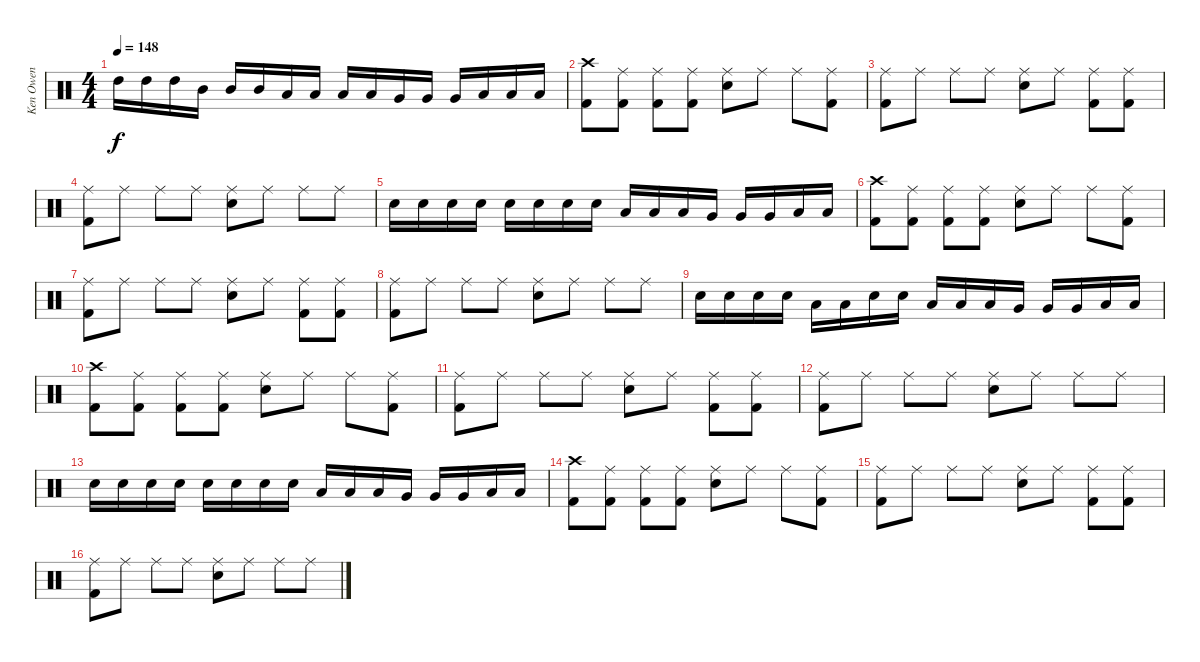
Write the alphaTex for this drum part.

\track ("Ken Owen" "Ken Owen") {instrument percussion}
\staff {score}
\articulation defaults
\ts (4 4)
\tempo 148
\clef neutral
\ks c "High Tom (hit)".16{dy f} "High Tom (hit)".16 "High Tom (hit)".16 "Mid Tom (hit)".16 "Mid Tom (hit)".16 "Mid Tom (hit)".16 "Low Tom (hit)".16 "Low Tom (hit)".16 "Low Tom (hit)".16 "Low Tom (hit)".16 "Very Low Tom (hit)".16 "Very Low Tom (hit)".16 "Very Low Tom (hit)".16 "Low Floor Tom (hit)".16 "Low Floor Tom (hit)".16 "Low Floor Tom (hit)".16
|
("Crash high (hit)" "Kick (hit) 2").8 ("Ride (middle)" "Kick (hit) 2").8 ("Ride (middle)" "Kick (hit) 2").8 ("Ride (middle)" "Kick (hit) 2").8 ("Ride (middle)" "Snare (hit) 2").8 "Ride (middle)".8 "Ride (middle)".8 ("Ride (middle)" "Kick (hit) 2").8 |
("Ride (middle)" "Kick (hit) 2").8 "Ride (middle)".8 "Ride (middle)".8 "Ride (middle)".8 ("Ride (middle)" "Snare (hit) 2").8 "Ride (middle)".8 ("Ride (middle)" "Kick (hit) 2").8 ("Ride (middle)" "Kick (hit) 2").8 |
("Ride (middle)" "Kick (hit) 2").8 "Ride (middle)".8 "Ride (middle)".8 "Ride (middle)".8 ("Ride (middle)" "Snare (hit) 2").8 "Ride (middle)".8 "Ride (middle)".8 "Ride (middle)".8 |
"Snare (hit) 2".16 "Snare (hit) 2".16 "Snare (hit) 2".16 "Snare (hit) 2".16 "Snare (hit) 2".16 "Snare (hit) 2".16 "Snare (hit) 2".16 "Snare (hit) 2".16 "Low Tom (hit)".16 "Low Tom (hit)".16 "Low Tom (hit)".16 "Very Low Tom (hit)".16 "Very Low Tom (hit)".16 "Very Low Tom (hit)".16 "Low Floor Tom (hit)".16 "Low Floor Tom (hit)".16 |
("Crash high (hit)" "Kick (hit) 2").8 ("Ride (middle)" "Kick (hit) 2").8 ("Ride (middle)" "Kick (hit) 2").8 ("Ride (middle)" "Kick (hit) 2").8 ("Ride (middle)" "Snare (hit) 2").8 "Ride (middle)".8 "Ride (middle)".8 ("Ride (middle)" "Kick (hit) 2").8 |
("Ride (middle)" "Kick (hit) 2").8 "Ride (middle)".8 "Ride (middle)".8 "Ride (middle)".8 ("Ride (middle)" "Snare (hit) 2").8 "Ride (middle)".8 ("Ride (middle)" "Kick (hit) 2").8 ("Ride (middle)" "Kick (hit) 2").8 |
("Ride (middle)" "Kick (hit) 2").8 "Ride (middle)".8 "Ride (middle)".8 "Ride (middle)".8 ("Ride (middle)" "Snare (hit) 2").8 "Ride (middle)".8 "Ride (middle)".8 "Ride (middle)".8 |
"Snare (hit) 2".16 "Snare (hit) 2".16 "Snare (hit) 2".16 "Snare (hit) 2".16 "Low Tom (hit)".16 "Low Tom (hit)".16 "Snare (hit) 2".16 "Snare (hit) 2".16 "Low Tom (hit)".16 "Low Tom (hit)".16 "Low Tom (hit)".16 "Very Low Tom (hit)".16 "Very Low Tom (hit)".16 "Very Low Tom (hit)".16 "Low Floor Tom (hit)".16 "Low Floor Tom (hit)".16 |
("Crash high (hit)" "Kick (hit) 2").8 ("Ride (middle)" "Kick (hit) 2").8 ("Ride (middle)" "Kick (hit) 2").8 ("Ride (middle)" "Kick (hit) 2").8 ("Ride (middle)" "Snare (hit) 2").8 "Ride (middle)".8 "Ride (middle)".8 ("Ride (middle)" "Kick (hit) 2").8 |
("Ride (middle)" "Kick (hit) 2").8 "Ride (middle)".8 "Ride (middle)".8 "Ride (middle)".8 ("Ride (middle)" "Snare (hit) 2").8 "Ride (middle)".8 ("Ride (middle)" "Kick (hit) 2").8 ("Ride (middle)" "Kick (hit) 2").8 |
("Ride (middle)" "Kick (hit) 2").8 "Ride (middle)".8 "Ride (middle)".8 "Ride (middle)".8 ("Ride (middle)" "Snare (hit) 2").8 "Ride (middle)".8 "Ride (middle)".8 "Ride (middle)".8 |
"Snare (hit) 2".16 "Snare (hit) 2".16 "Snare (hit) 2".16 "Snare (hit) 2".16 "Snare (hit) 2".16 "Snare (hit) 2".16 "Snare (hit) 2".16 "Snare (hit) 2".16 "Low Tom (hit)".16 "Low Tom (hit)".16 "Low Tom (hit)".16 "Very Low Tom (hit)".16 "Very Low Tom (hit)".16 "Very Low Tom (hit)".16 "Low Floor Tom (hit)".16 "Low Floor Tom (hit)".16 |
("Crash high (hit)" "Kick (hit) 2").8 ("Ride (middle)" "Kick (hit) 2").8 ("Ride (middle)" "Kick (hit) 2").8 ("Ride (middle)" "Kick (hit) 2").8 ("Ride (middle)" "Snare (hit) 2").8 "Ride (middle)".8 "Ride (middle)".8 ("Ride (middle)" "Kick (hit) 2").8 |
("Ride (middle)" "Kick (hit) 2").8 "Ride (middle)".8 "Ride (middle)".8 "Ride (middle)".8 ("Ride (middle)" "Snare (hit) 2").8 "Ride (middle)".8 ("Ride (middle)" "Kick (hit) 2").8 ("Ride (middle)" "Kick (hit) 2").8 |
("Ride (middle)" "Kick (hit) 2").8 "Ride (middle)".8 "Ride (middle)".8 "Ride (middle)".8 ("Ride (middle)" "Snare (hit) 2").8 "Ride (middle)".8 "Ride (middle)".8 "Ride (middle)".8
